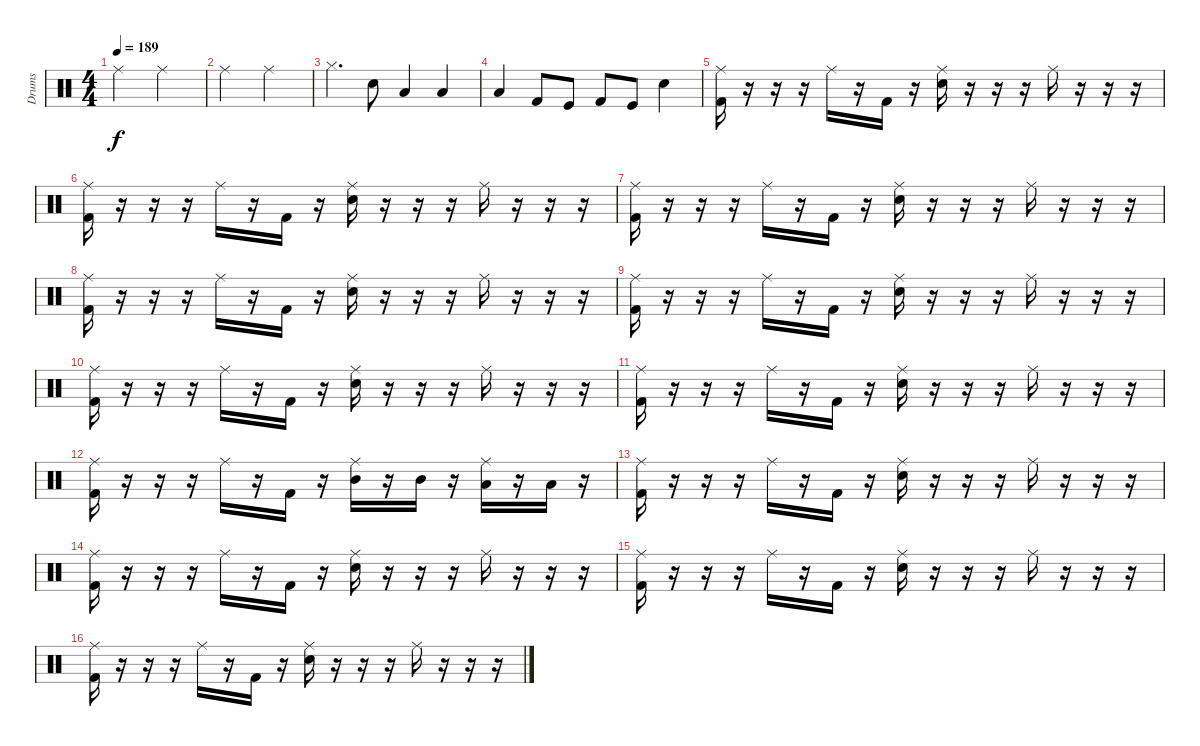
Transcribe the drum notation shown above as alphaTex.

\track ("Drums" "Drums") {instrument percussion}
\staff {score}
\articulation defaults
\ts (4 4)
\tempo 189
\clef neutral
\ks c "Ride (middle)".2{dy f} "Ride (middle)".2
|
"Ride (middle)".2 "Ride (middle)".2 |
"Hi-Hat (closed)".4{d} "Snare (hit) 2".8 "Low Tom (hit)".4 "Low Tom (hit)".4 |
"Low Tom (hit)".4 "Kick (hit) 2".8 "Kick (hit)".8 "Kick (hit) 2".8 "Kick (hit)".8 "Electric Snare (hit)".4 |
("Ride (middle)" "Kick (hit) 2").16 r.16 r.16 r.16 "Ride (middle)".16 r.16 "Kick (hit) 2".16 r.16 ("Ride (middle)" "Snare (hit) 2").16 r.16 r.16 r.16 "Ride (middle)".16 r.16 r.16 r.16 |
("Ride (middle)" "Kick (hit) 2").16 r.16 r.16 r.16 "Ride (middle)".16 r.16 "Kick (hit) 2".16 r.16 ("Ride (middle)" "Snare (hit) 2").16 r.16 r.16 r.16 "Ride (middle)".16 r.16 r.16 r.16 |
("Ride (middle)" "Kick (hit) 2").16 r.16 r.16 r.16 "Ride (middle)".16 r.16 "Kick (hit) 2".16 r.16 ("Ride (middle)" "Snare (hit) 2").16 r.16 r.16 r.16 "Ride (middle)".16 r.16 r.16 r.16 |
("Ride (middle)" "Kick (hit) 2").16 r.16 r.16 r.16 "Ride (middle)".16 r.16 "Kick (hit) 2".16 r.16 ("Ride (middle)" "Snare (hit) 2").16 r.16 r.16 r.16 "Ride (middle)".16 r.16 r.16 r.16 |
("Ride (middle)" "Kick (hit) 2").16 r.16 r.16 r.16 "Ride (middle)".16 r.16 "Kick (hit) 2".16 r.16 ("Ride (middle)" "Snare (hit) 2").16 r.16 r.16 r.16 "Ride (middle)".16 r.16 r.16 r.16 |
("Ride (middle)" "Kick (hit) 2").16 r.16 r.16 r.16 "Ride (middle)".16 r.16 "Kick (hit) 2".16 r.16 ("Ride (middle)" "Snare (hit) 2").16 r.16 r.16 r.16 "Ride (middle)".16 r.16 r.16 r.16 |
("Ride (middle)" "Kick (hit) 2").16 r.16 r.16 r.16 "Ride (middle)".16 r.16 "Kick (hit) 2".16 r.16 ("Ride (middle)" "Snare (hit) 2").16 r.16 r.16 r.16 "Ride (middle)".16 r.16 r.16 r.16 |
("Ride (middle)" "Kick (hit) 2").16 r.16 r.16 r.16 "Ride (middle)".16 r.16 "Kick (hit) 2".16 r.16 ("Ride (middle)" "Mid Tom (hit)").16 r.16 "Mid Tom (hit)".16 r.16 ("Ride (middle)" "Low Tom (hit)").16 r.16 "Low Tom (hit)".16 r.16 |
("Ride (middle)" "Kick (hit) 2").16 r.16 r.16 r.16 "Ride (middle)".16 r.16 "Kick (hit) 2".16 r.16 ("Ride (middle)" "Snare (hit) 2").16 r.16 r.16 r.16 "Ride (middle)".16 r.16 r.16 r.16 |
("Ride (middle)" "Kick (hit) 2").16 r.16 r.16 r.16 "Ride (middle)".16 r.16 "Kick (hit) 2".16 r.16 ("Ride (middle)" "Snare (hit) 2").16 r.16 r.16 r.16 "Ride (middle)".16 r.16 r.16 r.16 |
("Ride (middle)" "Kick (hit) 2").16 r.16 r.16 r.16 "Ride (middle)".16 r.16 "Kick (hit) 2".16 r.16 ("Ride (middle)" "Snare (hit) 2").16 r.16 r.16 r.16 "Ride (middle)".16 r.16 r.16 r.16 |
("Ride (middle)" "Kick (hit) 2").16 r.16 r.16 r.16 "Ride (middle)".16 r.16 "Kick (hit) 2".16 r.16 ("Ride (middle)" "Snare (hit) 2").16 r.16 r.16 r.16 "Ride (middle)".16 r.16 r.16 r.16
